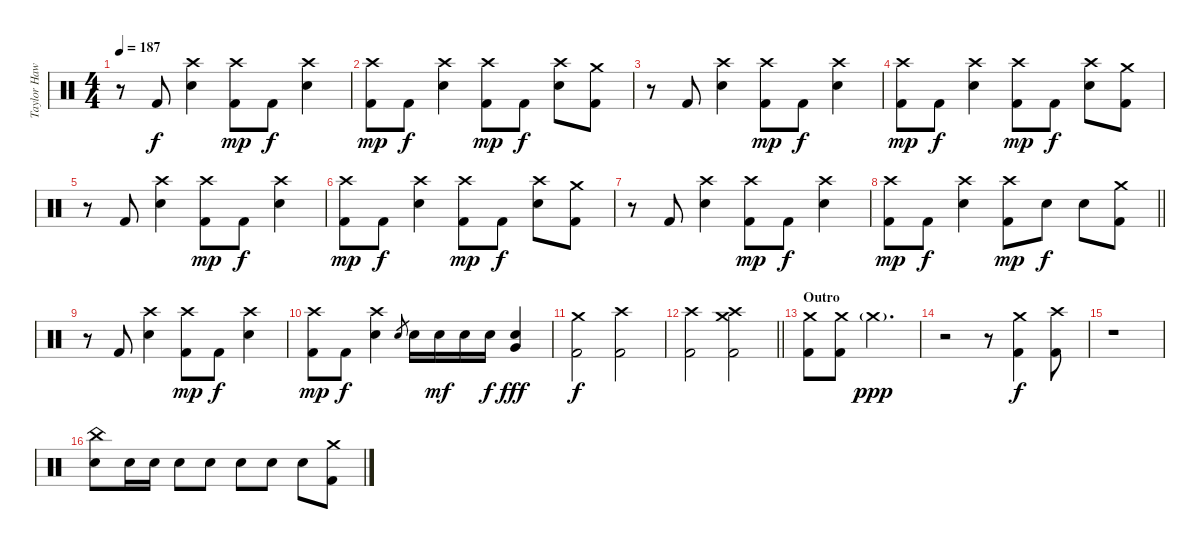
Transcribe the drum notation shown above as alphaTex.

\track ("Taylor Hawkins" "Taylor Haw") {instrument percussion}
\staff {score}
\articulation defaults
\ts (4 4)
\tempo 187
\clef neutral
\ks c
r.8{dy f} "Kick (hit) 2".8 ("Crash high (hit)" "Snare (hit) 2").4 ("Crash high (hit)" "Kick (hit) 2").8{dy mp} "Kick (hit) 2".8{dy f} ("Crash high (hit)" "Snare (hit) 2").4 |
("Crash high (hit)" "Kick (hit) 2").8{dy mp} "Kick (hit) 2".8{dy f} ("Crash high (hit)" "Snare (hit) 2").4 ("Crash high (hit)" "Kick (hit) 2").8{dy mp} "Kick (hit) 2".8{dy f} ("Crash high (hit)" "Snare (hit) 2").8 ("Crash medium (hit)" "Kick (hit) 2").8 |
r.8 "Kick (hit) 2".8 ("Crash high (hit)" "Snare (hit) 2").4 ("Crash high (hit)" "Kick (hit) 2").8{dy mp} "Kick (hit) 2".8{dy f} ("Crash high (hit)" "Snare (hit) 2").4 |
("Crash high (hit)" "Kick (hit) 2").8{dy mp} "Kick (hit) 2".8{dy f} ("Crash high (hit)" "Snare (hit) 2").4 ("Crash high (hit)" "Kick (hit) 2").8{dy mp} "Kick (hit) 2".8{dy f} ("Crash high (hit)" "Snare (hit) 2").8 ("Crash medium (hit)" "Kick (hit) 2").8 |
r.8 "Kick (hit) 2".8 ("Crash high (hit)" "Snare (hit) 2").4 ("Crash high (hit)" "Kick (hit) 2").8{dy mp} "Kick (hit) 2".8{dy f} ("Crash high (hit)" "Snare (hit) 2").4 |
("Crash high (hit)" "Kick (hit) 2").8{dy mp} "Kick (hit) 2".8{dy f} ("Crash high (hit)" "Snare (hit) 2").4 ("Crash high (hit)" "Kick (hit) 2").8{dy mp} "Kick (hit) 2".8{dy f} ("Crash high (hit)" "Snare (hit) 2").8 ("Crash medium (hit)" "Kick (hit) 2").8 |
r.8 "Kick (hit) 2".8 ("Crash high (hit)" "Snare (hit) 2").4 ("Crash high (hit)" "Kick (hit) 2").8{dy mp} "Kick (hit) 2".8{dy f} ("Crash high (hit)" "Snare (hit) 2").4 |
\barLineRight lightlight
("Crash high (hit)" "Kick (hit) 2").8{dy mp} "Kick (hit) 2".8{dy f} ("Crash high (hit)" "Snare (hit) 2").4 ("Crash high (hit)" "Kick (hit) 2").8{dy mp} "Snare (hit) 2".8{dy f} "Snare (hit) 2".8 ("Crash medium (hit)" "Kick (hit) 2").8 |
r.8 "Kick (hit) 2".8 ("Crash high (hit)" "Snare (hit) 2").4 ("Crash high (hit)" "Kick (hit) 2").8{dy mp} "Kick (hit) 2".8{dy f} ("Crash high (hit)" "Snare (hit) 2").4 |
("Crash high (hit)" "Kick (hit) 2").8{dy mp} "Kick (hit) 2".8{dy f} ("Crash high (hit)" "Snare (hit) 2").4 "Snare (hit) 2".8{gr} "Snare (hit) 2".16 "Snare (hit) 2".16{dy mf} "Snare (hit) 2".16 "Snare (hit) 2".16{dy f} ("Snare (hit) 2" "Very Low Tom (hit)").4{dy fff} |
("Crash medium (hit)" "Kick (hit) 2").2{dy f} ("Crash high (hit)" "Kick (hit) 2").2 |
\barLineRight lightlight
("Crash high (hit)" "Kick (hit) 2").2 ("Crash high (hit)" "Crash medium (hit)" "Kick (hit) 2").2 |
\section ("" "Outro")
("Crash medium (hit)" "Kick (hit) 2").8 ("Crash medium (hit)" "Kick (hit) 2").8 "Crash medium (hit)"{g}.2{d dy ppp} |
r.2 r.8 ("Crash medium (hit)" "Kick (hit) 2").4{dy f} ("Crash high (hit)" "Kick (hit) 2").8 |
r.1 |
("China (hit)" "Snare (hit) 2").8 "Snare (hit) 2".16 "Snare (hit) 2".16 "Snare (hit) 2".8 "Snare (hit) 2".8 "Snare (hit) 2".8 "Snare (hit) 2".8 "Snare (hit) 2".8 ("Crash medium (hit)" "Kick (hit) 2").8
